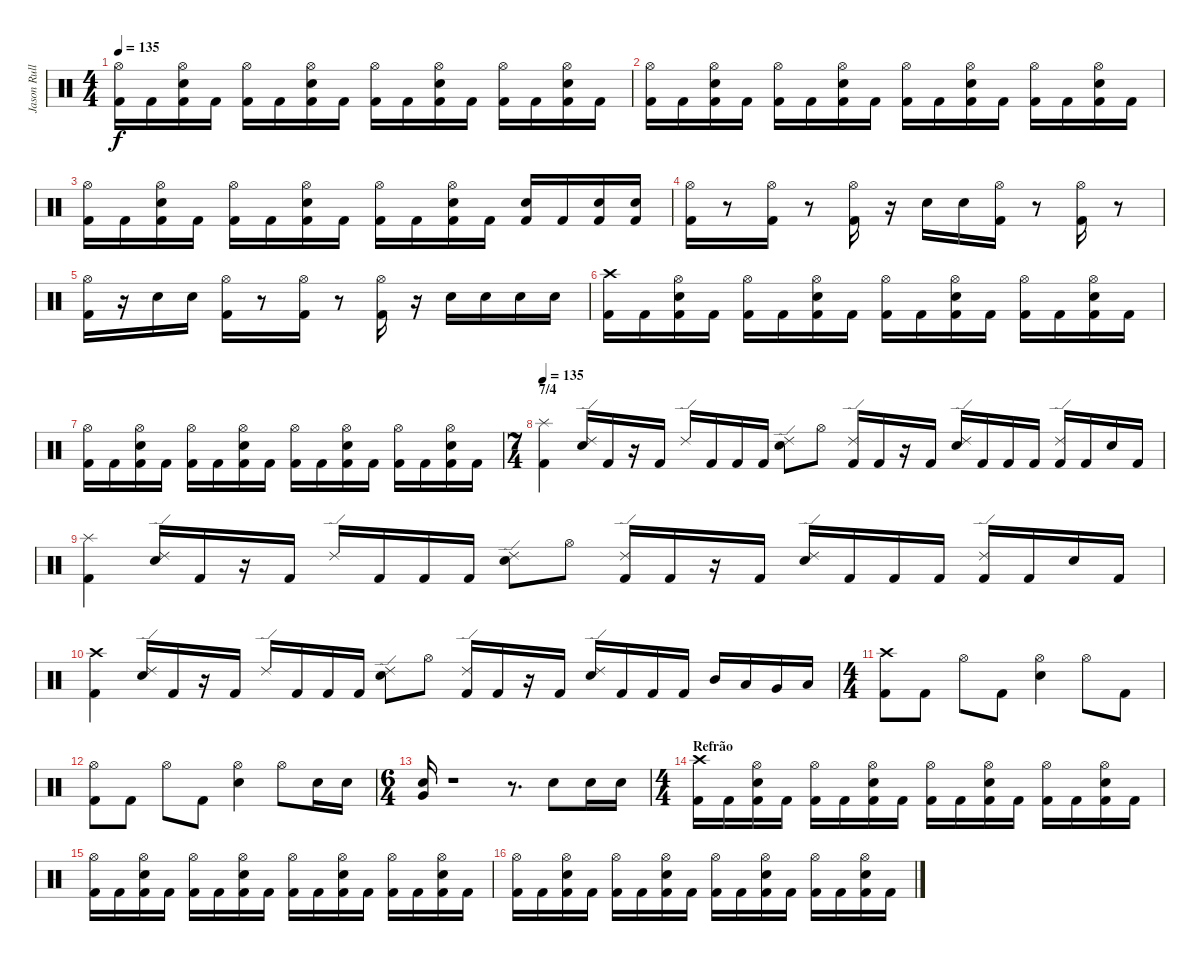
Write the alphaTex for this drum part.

\track ("Jason Rullo" "Jason Rull") {instrument percussion}
\staff {score}
\articulation defaults
\ts (4 4)
\tempo 135
\clef neutral
\ks c
("Kick (hit) 2" "Hi-Hat (open)").16{dy f} "Kick (hit) 2".16 ("Kick (hit) 2" "Electric Snare (hit)" "Hi-Hat (open)").16 "Kick (hit) 2".16 ("Kick (hit) 2" "Hi-Hat (open)").16 "Kick (hit) 2".16 ("Kick (hit) 2" "Electric Snare (hit)" "Hi-Hat (open)").16 "Kick (hit) 2".16 ("Kick (hit) 2" "Hi-Hat (open)").16 "Kick (hit) 2".16 ("Kick (hit) 2" "Electric Snare (hit)" "Hi-Hat (open)").16 "Kick (hit) 2".16 ("Kick (hit) 2" "Hi-Hat (open)").16 "Kick (hit) 2".16 ("Kick (hit) 2" "Electric Snare (hit)" "Hi-Hat (open)").16 "Kick (hit) 2".16 |
("Kick (hit) 2" "Hi-Hat (open)").16 "Kick (hit) 2".16 ("Kick (hit) 2" "Electric Snare (hit)" "Hi-Hat (open)").16 "Kick (hit) 2".16 ("Kick (hit) 2" "Hi-Hat (open)").16 "Kick (hit) 2".16 ("Kick (hit) 2" "Electric Snare (hit)" "Hi-Hat (open)").16 "Kick (hit) 2".16 ("Kick (hit) 2" "Hi-Hat (open)").16 "Kick (hit) 2".16 ("Kick (hit) 2" "Electric Snare (hit)" "Hi-Hat (open)").16 "Kick (hit) 2".16 ("Kick (hit) 2" "Hi-Hat (open)").16 "Kick (hit) 2".16 ("Kick (hit) 2" "Electric Snare (hit)" "Hi-Hat (open)").16 "Kick (hit) 2".16 |
("Kick (hit) 2" "Hi-Hat (open)").16 "Kick (hit) 2".16 ("Kick (hit) 2" "Electric Snare (hit)" "Hi-Hat (open)").16 "Kick (hit) 2".16 ("Kick (hit) 2" "Hi-Hat (open)").16 "Kick (hit) 2".16 ("Kick (hit) 2" "Electric Snare (hit)" "Hi-Hat (open)").16 "Kick (hit) 2".16 ("Kick (hit) 2" "Hi-Hat (open)").16 "Kick (hit) 2".16 ("Kick (hit) 2" "Electric Snare (hit)" "Hi-Hat (open)").16 "Kick (hit) 2".16 ("Kick (hit) 2" "Electric Snare (hit)").16 "Kick (hit) 2".16 ("Kick (hit) 2" "Electric Snare (hit)").16 ("Kick (hit) 2" "Electric Snare (hit)").16 |
("Hi-Hat (open)" "Kick (hit) 2").16 r.8 ("Hi-Hat (open)" "Kick (hit) 2").16 r.8 ("Hi-Hat (open)" "Kick (hit) 2").16 r.16 "Electric Snare (hit)".16 "Electric Snare (hit)".16 ("Hi-Hat (open)" "Kick (hit) 2").16 r.8 ("Hi-Hat (open)" "Kick (hit) 2").16 r.8 |
("Hi-Hat (open)" "Kick (hit) 2").16 r.16 "Electric Snare (hit)".16 "Electric Snare (hit)".16 ("Hi-Hat (open)" "Kick (hit) 2").16 r.8 ("Hi-Hat (open)" "Kick (hit) 2").16 r.8 ("Hi-Hat (open)" "Kick (hit) 2").16 r.16 "Electric Snare (hit)".16 "Electric Snare (hit)".16 "Electric Snare (hit)".16 "Electric Snare (hit)".16 |
("Kick (hit) 2" "Crash high (hit)").16 "Kick (hit) 2".16 ("Hi-Hat (open)" "Electric Snare (hit)" "Kick (hit) 2").16 "Kick (hit) 2".16 ("Hi-Hat (open)" "Kick (hit) 2").16 "Kick (hit) 2".16 ("Hi-Hat (open)" "Electric Snare (hit)" "Kick (hit) 2").16 "Kick (hit) 2".16 ("Hi-Hat (open)" "Kick (hit) 2").16 "Kick (hit) 2".16 ("Hi-Hat (open)" "Electric Snare (hit)" "Kick (hit) 2").16 "Kick (hit) 2".16 ("Hi-Hat (open)" "Kick (hit) 2").16 "Kick (hit) 2".16 ("Hi-Hat (open)" "Electric Snare (hit)" "Kick (hit) 2").16 "Kick (hit) 2".16 |
("Kick (hit) 2" "Hi-Hat (open)").16 "Kick (hit) 2".16 ("Kick (hit) 2" "Electric Snare (hit)" "Hi-Hat (open)").16 "Kick (hit) 2".16 ("Kick (hit) 2" "Hi-Hat (open)").16 "Kick (hit) 2".16 ("Kick (hit) 2" "Electric Snare (hit)" "Hi-Hat (open)").16 "Kick (hit) 2".16 ("Kick (hit) 2" "Hi-Hat (open)").16 "Kick (hit) 2".16 ("Kick (hit) 2" "Electric Snare (hit)" "Hi-Hat (open)").16 "Kick (hit) 2".16 ("Kick (hit) 2" "Hi-Hat (open)").16 "Kick (hit) 2".16 ("Kick (hit) 2" "Electric Snare (hit)" "Hi-Hat (open)").16 "Kick (hit) 2".16 |
\ts (7 4)
\section ("" "7/4")
\tempo 135
("Splash (hit)" "Kick (hit) 2").4 ("Electric Snare (hit)" "Ride (edge) 2").16 "Kick (hit) 2".16 r.16 "Kick (hit) 2".16 "Ride (edge) 2".16 "Kick (hit) 2".16 "Kick (hit) 2".16 "Kick (hit) 2".16 ("Electric Snare (hit)" "Ride (edge) 2").8 "Hi-Hat (open)".8 ("Kick (hit) 2" "Ride (edge) 2").16 "Kick (hit) 2".16 r.16 "Kick (hit) 2".16 ("Electric Snare (hit)" "Ride (edge) 2").16 "Kick (hit) 2".16 "Kick (hit) 2".16 "Kick (hit) 2".16 ("Kick (hit) 2" "Ride (edge) 2").16 "Kick (hit) 2".16 "Electric Snare (hit)".16 "Kick (hit) 2".16 |
("Splash (hit)" "Kick (hit) 2").4 ("Electric Snare (hit)" "Ride (edge) 2").16 "Kick (hit) 2".16 r.16 "Kick (hit) 2".16 "Ride (edge) 2".16 "Kick (hit) 2".16 "Kick (hit) 2".16 "Kick (hit) 2".16 ("Electric Snare (hit)" "Ride (edge) 2").8 "Hi-Hat (open)".8 ("Kick (hit) 2" "Ride (edge) 2").16 "Kick (hit) 2".16 r.16 "Kick (hit) 2".16 ("Electric Snare (hit)" "Ride (edge) 2").16 "Kick (hit) 2".16 "Kick (hit) 2".16 "Kick (hit) 2".16 ("Kick (hit) 2" "Ride (edge) 2").16 "Kick (hit) 2".16 "Electric Snare (hit)".16 "Kick (hit) 2".16 |
("Crash high (hit)" "Kick (hit) 2").4 ("Electric Snare (hit)" "Ride (edge) 2").16 "Kick (hit) 2".16 r.16 "Kick (hit) 2".16 "Ride (edge) 2".16 "Kick (hit) 2".16 "Kick (hit) 2".16 "Kick (hit) 2".16 ("Electric Snare (hit)" "Ride (edge) 2").8 "Hi-Hat (open)".8 ("Kick (hit) 2" "Ride (edge) 2").16 "Kick (hit) 2".16 r.16 "Kick (hit) 2".16 ("Electric Snare (hit)" "Ride (edge) 2").16 "Kick (hit) 2".16 "Kick (hit) 2".16 "Kick (hit) 2".16 "Mid Tom (hit)".16 "Low Tom (hit)".16 "Very Low Tom (hit)".16 "Low Floor Tom (hit)".16 |
\ts (4 4)
("Kick (hit) 2" "Crash high (hit)").8 "Kick (hit) 2".8 "Hi-Hat (open)".8 "Kick (hit) 2".8 ("Electric Snare (hit)" "Hi-Hat (open)").4 "Hi-Hat (open)".8 "Kick (hit) 2".8 |
("Kick (hit) 2" "Hi-Hat (open)").8 "Kick (hit) 2".8 "Hi-Hat (open)".8 "Kick (hit) 2".8 ("Electric Snare (hit)" "Hi-Hat (open)").4 "Hi-Hat (open)".8 "Electric Snare (hit)".16 "Electric Snare (hit)".16 |
\ts (6 4)
("Very Low Tom (hit)" "Electric Snare (hit)").16 r.1 r.8{d} "Electric Snare (hit)".8 "Electric Snare (hit)".16 "Electric Snare (hit)".16 |
\ts (4 4)
\section ("" "Refrão")
("Kick (hit) 2" "Crash high (hit)").16 "Kick (hit) 2".16 ("Hi-Hat (open)" "Electric Snare (hit)" "Kick (hit) 2").16 "Kick (hit) 2".16 ("Hi-Hat (open)" "Kick (hit) 2").16 "Kick (hit) 2".16 ("Hi-Hat (open)" "Electric Snare (hit)" "Kick (hit) 2").16 "Kick (hit) 2".16 ("Hi-Hat (open)" "Kick (hit) 2").16 "Kick (hit) 2".16 ("Hi-Hat (open)" "Electric Snare (hit)" "Kick (hit) 2").16 "Kick (hit) 2".16 ("Hi-Hat (open)" "Kick (hit) 2").16 "Kick (hit) 2".16 ("Hi-Hat (open)" "Electric Snare (hit)" "Kick (hit) 2").16 "Kick (hit) 2".16 |
("Kick (hit) 2" "Hi-Hat (open)").16 "Kick (hit) 2".16 ("Kick (hit) 2" "Electric Snare (hit)" "Hi-Hat (open)").16 "Kick (hit) 2".16 ("Kick (hit) 2" "Hi-Hat (open)").16 "Kick (hit) 2".16 ("Kick (hit) 2" "Electric Snare (hit)" "Hi-Hat (open)").16 "Kick (hit) 2".16 ("Kick (hit) 2" "Hi-Hat (open)").16 "Kick (hit) 2".16 ("Kick (hit) 2" "Electric Snare (hit)" "Hi-Hat (open)").16 "Kick (hit) 2".16 ("Kick (hit) 2" "Hi-Hat (open)").16 "Kick (hit) 2".16 ("Kick (hit) 2" "Electric Snare (hit)" "Hi-Hat (open)").16 "Kick (hit) 2".16 |
("Kick (hit) 2" "Hi-Hat (open)").16 "Kick (hit) 2".16 ("Kick (hit) 2" "Electric Snare (hit)" "Hi-Hat (open)").16 "Kick (hit) 2".16 ("Kick (hit) 2" "Hi-Hat (open)").16 "Kick (hit) 2".16 ("Kick (hit) 2" "Electric Snare (hit)" "Hi-Hat (open)").16 "Kick (hit) 2".16 ("Kick (hit) 2" "Hi-Hat (open)").16 "Kick (hit) 2".16 ("Kick (hit) 2" "Electric Snare (hit)" "Hi-Hat (open)").16 "Kick (hit) 2".16 ("Kick (hit) 2" "Hi-Hat (open)").16 "Kick (hit) 2".16 ("Kick (hit) 2" "Electric Snare (hit)" "Hi-Hat (open)").16 "Kick (hit) 2".16
